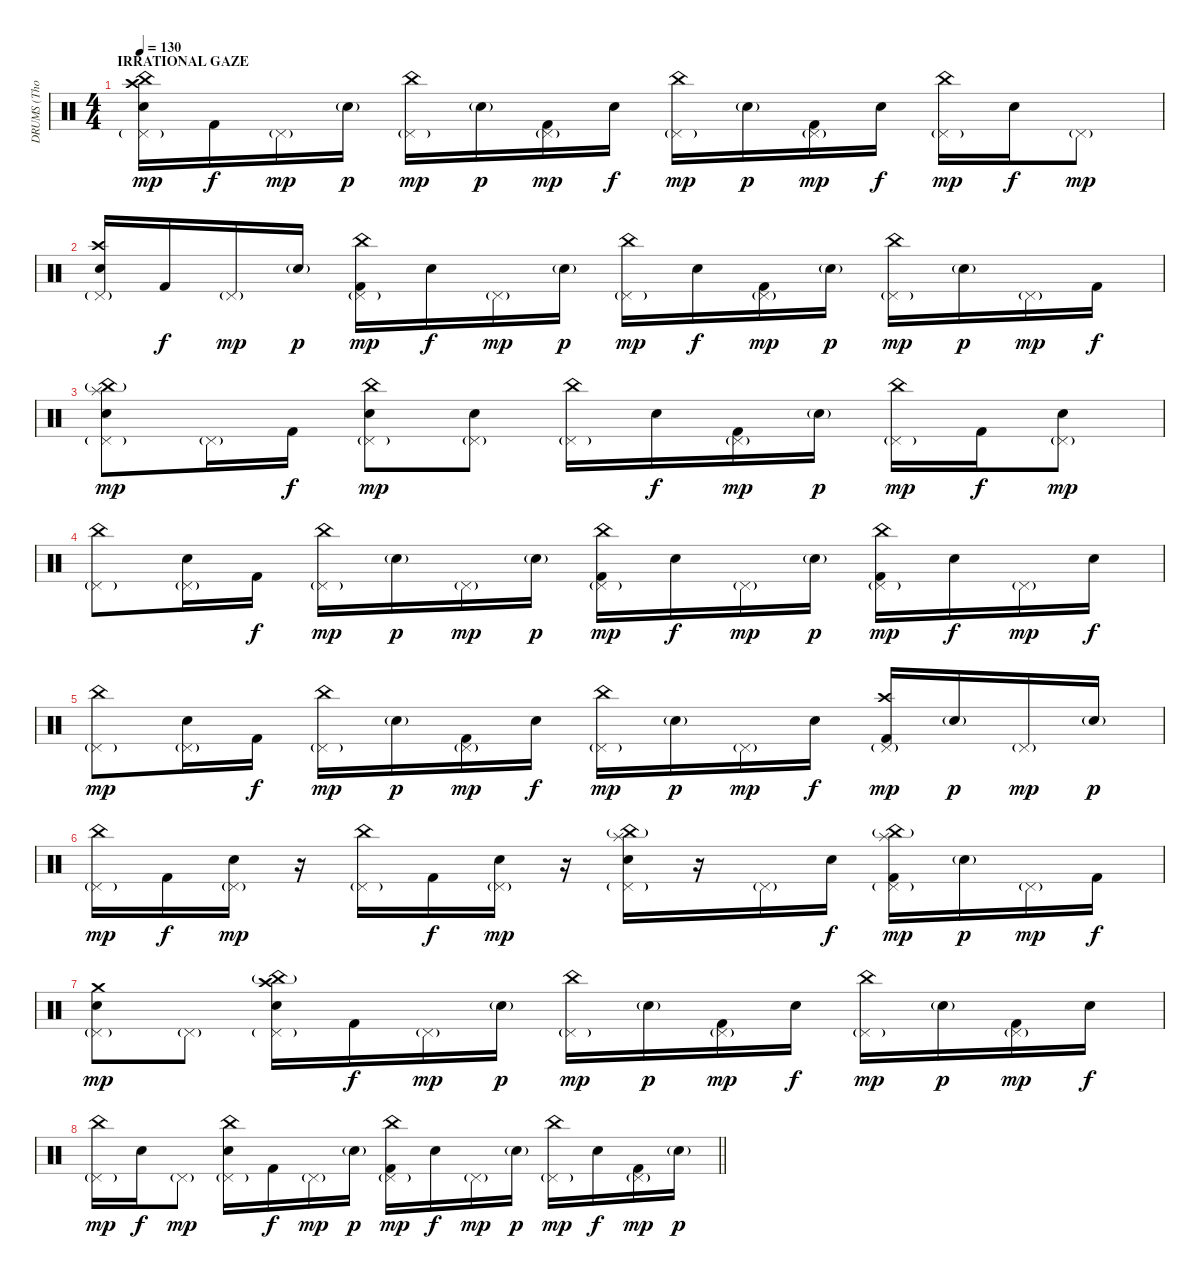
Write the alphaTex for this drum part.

\track ("DRUMS (Thomas Haake)" "DRUMS (Tho") {instrument percussion}
\staff {score}
\articulation defaults
\ts (4 4)
\section ("" "IRRATIONAL GAZE")
\tempo 130
\clef neutral
\ks c
("China (hit)" "Pedal Hi-Hat (hit)"{g} "Crash high (hit)" "Electric Snare (hit)").16{dy mp} "Kick (hit) 2".16{dy f} "Pedal Hi-Hat (hit)"{g}.16{dy mp} "Electric Snare (hit)"{g}.16{dy p} ("China (hit)" "Pedal Hi-Hat (hit)"{g}).16{dy mp} "Electric Snare (hit)"{g}.16{dy p} ("Pedal Hi-Hat (hit)"{g} "Kick (hit) 2").16{dy mp} "Electric Snare (hit)".16{dy f} ("China (hit)" "Pedal Hi-Hat (hit)"{g}).16{dy mp} "Electric Snare (hit)"{g}.16{dy p} ("Pedal Hi-Hat (hit)"{g} "Kick (hit) 2").16{dy mp} "Electric Snare (hit)".16{dy f} ("China (hit)" "Pedal Hi-Hat (hit)"{g}).16{dy mp} "Electric Snare (hit)".16{dy f} "Pedal Hi-Hat (hit)"{g}.8{dy mp} |
("Crash high (hit)" "Pedal Hi-Hat (hit)"{g} "Electric Snare (hit)").16 "Kick (hit) 2".16{dy f} "Pedal Hi-Hat (hit)"{g}.16{dy mp} "Electric Snare (hit)"{g}.16{dy p} ("China (hit)" "Pedal Hi-Hat (hit)"{g} "Kick (hit) 2").16{dy mp} "Electric Snare (hit)".16{dy f} "Pedal Hi-Hat (hit)"{g}.16{dy mp} "Electric Snare (hit)"{g}.16{dy p} ("China (hit)" "Pedal Hi-Hat (hit)"{g}).16{dy mp} "Electric Snare (hit)".16{dy f} ("Pedal Hi-Hat (hit)"{g} "Kick (hit) 2").16{dy mp} "Electric Snare (hit)"{g}.16{dy p} ("China (hit)" "Pedal Hi-Hat (hit)"{g}).16{dy mp} "Electric Snare (hit)"{g}.16{dy p} "Pedal Hi-Hat (hit)"{g}.16{dy mp} "Kick (hit) 2".16{dy f} |
("Splash (hit)" "Pedal Hi-Hat (hit)"{g} "China (hit)"{g} "Electric Snare (hit)").8{dy mp} "Pedal Hi-Hat (hit)"{g}.16 "Kick (hit) 2".16{dy f} ("China (hit)" "Pedal Hi-Hat (hit)"{g} "Electric Snare (hit)").8{dy mp} ("Pedal Hi-Hat (hit)"{g} "Electric Snare (hit)").8 ("China (hit)" "Pedal Hi-Hat (hit)"{g}).16 "Electric Snare (hit)".16{dy f} ("Pedal Hi-Hat (hit)"{g} "Kick (hit) 2").16{dy mp} "Electric Snare (hit)"{g}.16{dy p} ("China (hit)" "Pedal Hi-Hat (hit)"{g}).16{dy mp} "Kick (hit) 2".16{dy f} ("Pedal Hi-Hat (hit)"{g} "Electric Snare (hit)").8{dy mp} |
("China (hit)" "Pedal Hi-Hat (hit)"{g}).8 ("Pedal Hi-Hat (hit)"{g} "Electric Snare (hit)").16 "Kick (hit) 2".16{dy f} ("China (hit)" "Pedal Hi-Hat (hit)"{g}).16{dy mp} "Electric Snare (hit)"{g}.16{dy p} "Pedal Hi-Hat (hit)"{g}.16{dy mp} "Electric Snare (hit)"{g}.16{dy p} ("China (hit)" "Pedal Hi-Hat (hit)"{g} "Kick (hit) 2").16{dy mp} "Electric Snare (hit)".16{dy f} "Pedal Hi-Hat (hit)"{g}.16{dy mp} "Electric Snare (hit)"{g}.16{dy p} ("China (hit)" "Pedal Hi-Hat (hit)"{g} "Kick (hit) 2").16{dy mp} "Electric Snare (hit)".16{dy f} "Pedal Hi-Hat (hit)"{g}.16{dy mp} "Electric Snare (hit)".16{dy f} |
("China (hit)" "Pedal Hi-Hat (hit)"{g}).8{dy mp} ("Pedal Hi-Hat (hit)"{g} "Electric Snare (hit)").16 "Kick (hit) 2".16{dy f} ("China (hit)" "Pedal Hi-Hat (hit)"{g}).16{dy mp} "Electric Snare (hit)"{g}.16{dy p} ("Pedal Hi-Hat (hit)"{g} "Kick (hit) 2").16{dy mp} "Electric Snare (hit)".16{dy f} ("China (hit)" "Pedal Hi-Hat (hit)"{g}).16{dy mp} "Electric Snare (hit)"{g}.16{dy p} "Pedal Hi-Hat (hit)"{g}.16{dy mp} "Electric Snare (hit)".16{dy f} ("Crash high (hit)" "Pedal Hi-Hat (hit)"{g} "Kick (hit) 2").16{dy mp} "Electric Snare (hit)"{g}.16{dy p} "Pedal Hi-Hat (hit)"{g}.16{dy mp} "Electric Snare (hit)"{g}.16{dy p} |
("China (hit)" "Pedal Hi-Hat (hit)"{g}).16{dy mp} "Kick (hit) 2".16{dy f} ("Pedal Hi-Hat (hit)"{g} "Electric Snare (hit)").16{dy mp} r.16 ("China (hit)" "Pedal Hi-Hat (hit)"{g}).16 "Kick (hit) 2".16{dy f} ("Pedal Hi-Hat (hit)"{g} "Electric Snare (hit)").16{dy mp} r.16 ("Splash (hit)" "Pedal Hi-Hat (hit)"{g} "China (hit)"{g} "Electric Snare (hit)").16 r.16 "Pedal Hi-Hat (hit)"{g}.16 "Electric Snare (hit)".16{dy f} ("Splash (hit)" "Pedal Hi-Hat (hit)"{g} "China (hit)"{g} "Kick (hit) 2").16{dy mp} "Electric Snare (hit)"{g}.16{dy p} "Pedal Hi-Hat (hit)"{g}.16{dy mp} "Kick (hit) 2".16{dy f} |
("Crash medium (hit)" "Pedal Hi-Hat (hit)"{g} "Electric Snare (hit)").8{dy mp} "Pedal Hi-Hat (hit)"{g}.8 ("Crash high (hit)" "Pedal Hi-Hat (hit)"{g} "China (hit)"{g} "Electric Snare (hit)").16 "Kick (hit) 2".16{dy f} "Pedal Hi-Hat (hit)"{g}.16{dy mp} "Electric Snare (hit)"{g}.16{dy p} ("China (hit)" "Pedal Hi-Hat (hit)"{g}).16{dy mp} "Electric Snare (hit)"{g}.16{dy p} ("Pedal Hi-Hat (hit)"{g} "Kick (hit) 2").16{dy mp} "Electric Snare (hit)".16{dy f} ("China (hit)" "Pedal Hi-Hat (hit)"{g}).16{dy mp} "Electric Snare (hit)"{g}.16{dy p} ("Pedal Hi-Hat (hit)"{g} "Kick (hit) 2").16{dy mp} "Electric Snare (hit)".16{dy f} |
\barLineRight lightlight
("China (hit)" "Pedal Hi-Hat (hit)"{g}).16{dy mp} "Electric Snare (hit)".16{dy f} "Pedal Hi-Hat (hit)"{g}.8{dy mp} ("China (hit)" "Pedal Hi-Hat (hit)"{g} "Electric Snare (hit)").16 "Kick (hit) 2".16{dy f} "Pedal Hi-Hat (hit)"{g}.16{dy mp} "Electric Snare (hit)"{g}.16{dy p} ("China (hit)" "Pedal Hi-Hat (hit)"{g} "Kick (hit) 2").16{dy mp} "Electric Snare (hit)".16{dy f} "Pedal Hi-Hat (hit)"{g}.16{dy mp} "Electric Snare (hit)"{g}.16{dy p} ("China (hit)" "Pedal Hi-Hat (hit)"{g}).16{dy mp} "Electric Snare (hit)".16{dy f} ("Pedal Hi-Hat (hit)"{g} "Kick (hit) 2").16{dy mp} "Electric Snare (hit)"{g}.16{dy p}
